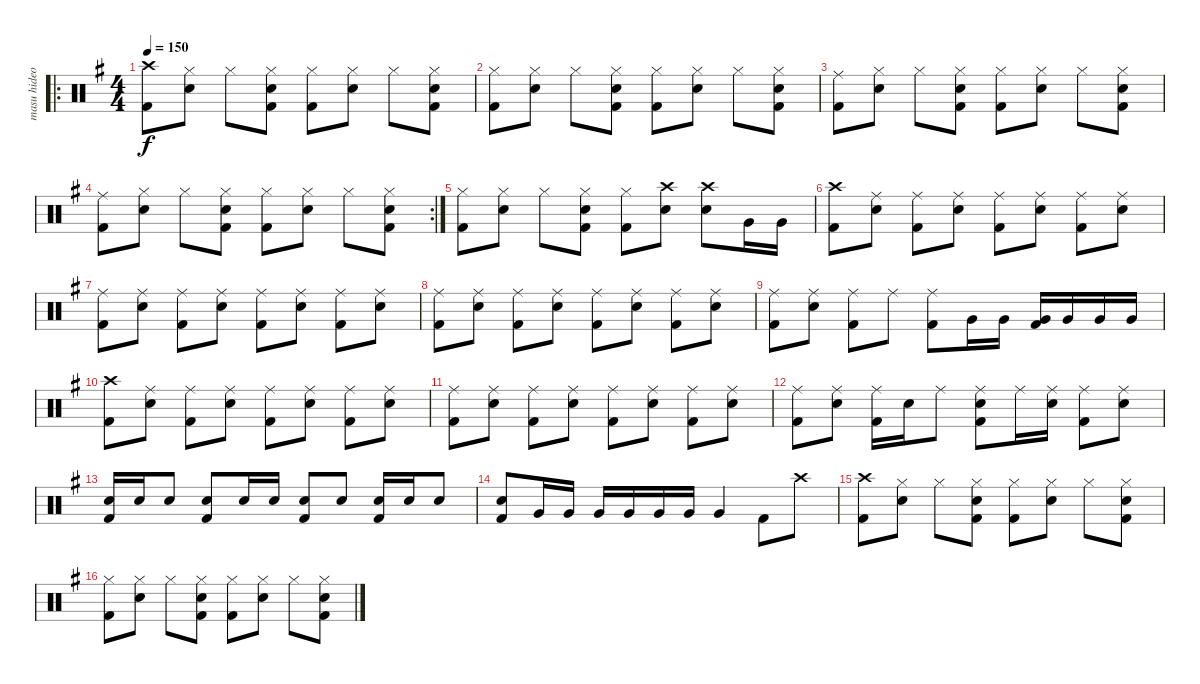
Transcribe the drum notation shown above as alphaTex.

\track ("masu hideo - drum" "masu hideo") {instrument percussion}
\staff {score}
\articulation defaults
\ro
\ts (4 4)
\tempo 150
\clef neutral
\ks g
("Crash high (hit)" "Kick (hit) 2").8{dy f} ("Hi-Hat (closed)" "Electric Snare (hit)").8 "Hi-Hat (closed)".8 ("Hi-Hat (closed)" "Electric Snare (hit)" "Kick (hit) 2").8 ("Hi-Hat (closed)" "Kick (hit) 2").8 ("Hi-Hat (closed)" "Electric Snare (hit)").8 "Hi-Hat (closed)".8 ("Hi-Hat (closed)" "Electric Snare (hit)" "Kick (hit) 2").8 |
("Hi-Hat (closed)" "Kick (hit) 2").8 ("Hi-Hat (closed)" "Electric Snare (hit)").8 "Hi-Hat (closed)".8 ("Hi-Hat (closed)" "Electric Snare (hit)" "Kick (hit) 2").8 ("Hi-Hat (closed)" "Kick (hit) 2").8 ("Hi-Hat (closed)" "Electric Snare (hit)").8 "Hi-Hat (closed)".8 ("Hi-Hat (closed)" "Electric Snare (hit)" "Kick (hit) 2").8 |
("Ride (middle)" "Kick (hit) 2").8 ("Hi-Hat (closed)" "Electric Snare (hit)").8 "Hi-Hat (closed)".8 ("Hi-Hat (closed)" "Electric Snare (hit)" "Kick (hit) 2").8 ("Hi-Hat (closed)" "Kick (hit) 2").8 ("Hi-Hat (closed)" "Electric Snare (hit)").8 "Hi-Hat (closed)".8 ("Hi-Hat (closed)" "Electric Snare (hit)" "Kick (hit) 2").8 |
\rc 2
("Ride (middle)" "Kick (hit) 2").8 ("Hi-Hat (closed)" "Electric Snare (hit)").8 "Hi-Hat (closed)".8 ("Hi-Hat (closed)" "Electric Snare (hit)" "Kick (hit) 2").8 ("Hi-Hat (closed)" "Kick (hit) 2").8 ("Hi-Hat (closed)" "Electric Snare (hit)").8 "Hi-Hat (closed)".8 ("Hi-Hat (closed)" "Electric Snare (hit)" "Kick (hit) 2").8 |
("Hi-Hat (closed)" "Kick (hit) 2").8 ("Hi-Hat (closed)" "Electric Snare (hit)").8 "Hi-Hat (closed)".8 ("Hi-Hat (closed)" "Electric Snare (hit)" "Kick (hit) 2").8 ("Hi-Hat (closed)" "Kick (hit) 2").8 ("Crash high (hit)" "Electric Snare (hit)").8 ("Crash high (hit)" "Electric Snare (hit)").8 "Very Low Tom (hit)".16 "Very Low Tom (hit)".16 |
("Crash high (hit)" "Kick (hit) 2").8 ("Ride (middle)" "Electric Snare (hit)").8 ("Ride (middle)" "Kick (hit) 2").8 ("Ride (middle)" "Electric Snare (hit)").8 ("Ride (middle)" "Kick (hit) 2").8 ("Ride (middle)" "Electric Snare (hit)").8 ("Ride (middle)" "Kick (hit) 2").8 ("Ride (middle)" "Electric Snare (hit)").8 |
("Ride (middle)" "Kick (hit) 2").8 ("Ride (middle)" "Electric Snare (hit)").8 ("Ride (middle)" "Kick (hit) 2").8 ("Ride (middle)" "Electric Snare (hit)").8 ("Ride (middle)" "Kick (hit) 2").8 ("Ride (middle)" "Electric Snare (hit)").8 ("Ride (middle)" "Kick (hit) 2").8 ("Ride (middle)" "Electric Snare (hit)").8 |
("Ride (middle)" "Kick (hit) 2").8 ("Ride (middle)" "Electric Snare (hit)").8 ("Ride (middle)" "Kick (hit) 2").8 ("Ride (middle)" "Electric Snare (hit)").8 ("Ride (middle)" "Kick (hit) 2").8 ("Ride (middle)" "Electric Snare (hit)").8 ("Ride (middle)" "Kick (hit) 2").8 ("Ride (middle)" "Electric Snare (hit)").8 |
("Ride (middle)" "Kick (hit) 2").8 ("Ride (middle)" "Electric Snare (hit)").8 ("Ride (middle)" "Kick (hit) 2").8 "Ride (middle)".8 ("Ride (middle)" "Kick (hit) 2").8 "Very Low Tom (hit)".16 "Very Low Tom (hit)".16 ("Very Low Tom (hit)" "Kick (hit) 2").16 "Very Low Tom (hit)".16 "Very Low Tom (hit)".16 "Very Low Tom (hit)".16 |
("Crash high (hit)" "Kick (hit) 2").8 ("Ride (middle)" "Electric Snare (hit)").8 ("Ride (middle)" "Kick (hit) 2").8 ("Ride (middle)" "Electric Snare (hit)").8 ("Ride (middle)" "Kick (hit) 2").8 ("Ride (middle)" "Electric Snare (hit)").8 ("Ride (middle)" "Kick (hit) 2").8 ("Ride (middle)" "Electric Snare (hit)").8 |
("Ride (middle)" "Kick (hit) 2").8 ("Ride (middle)" "Electric Snare (hit)").8 ("Ride (middle)" "Kick (hit) 2").8 ("Ride (middle)" "Electric Snare (hit)").8 ("Ride (middle)" "Kick (hit) 2").8 ("Ride (middle)" "Electric Snare (hit)").8 ("Ride (middle)" "Kick (hit) 2").8 ("Ride (middle)" "Electric Snare (hit)").8 |
("Ride (middle)" "Kick (hit) 2").8 ("Ride (middle)" "Electric Snare (hit)").8 ("Ride (middle)" "Kick (hit) 2").16 "Electric Snare (hit)".16 "Ride (middle)".8 ("Ride (middle)" "Electric Snare (hit)" "Kick (hit) 2").8 "Ride (middle)".16 ("Ride (middle)" "Electric Snare (hit)").16 ("Ride (middle)" "Kick (hit) 2").8 ("Ride (middle)" "Electric Snare (hit)").8 |
("Electric Snare (hit)" "Kick (hit) 2").16 "Electric Snare (hit)".16 "Electric Snare (hit)".8 ("Electric Snare (hit)" "Kick (hit) 2").8 "Electric Snare (hit)".16 "Electric Snare (hit)".16 ("Electric Snare (hit)" "Kick (hit) 2").8 "Electric Snare (hit)".8 ("Electric Snare (hit)" "Kick (hit) 2").16 "Electric Snare (hit)".16 "Electric Snare (hit)".8 |
("Electric Snare (hit)" "Kick (hit) 2").8 "Very Low Tom (hit)".16 "Very Low Tom (hit)".16 "Very Low Tom (hit)".16 "Very Low Tom (hit)".16 "Very Low Tom (hit)".16 "Very Low Tom (hit)".16 "Very Low Tom (hit)".4 "Kick (hit) 2".8 "Crash high (hit)".8 |
("Crash high (hit)" "Kick (hit) 2").8 ("Hi-Hat (closed)" "Electric Snare (hit)").8 "Hi-Hat (closed)".8 ("Hi-Hat (closed)" "Electric Snare (hit)" "Kick (hit) 2").8 ("Hi-Hat (closed)" "Kick (hit) 2").8 ("Hi-Hat (closed)" "Electric Snare (hit)").8 "Hi-Hat (closed)".8 ("Hi-Hat (closed)" "Electric Snare (hit)" "Kick (hit) 2").8 |
("Hi-Hat (closed)" "Kick (hit) 2").8 ("Hi-Hat (closed)" "Electric Snare (hit)").8 "Hi-Hat (closed)".8 ("Hi-Hat (closed)" "Electric Snare (hit)" "Kick (hit) 2").8 ("Hi-Hat (closed)" "Kick (hit) 2").8 ("Hi-Hat (closed)" "Electric Snare (hit)").8 "Hi-Hat (closed)".8 ("Hi-Hat (closed)" "Electric Snare (hit)" "Kick (hit) 2").8
